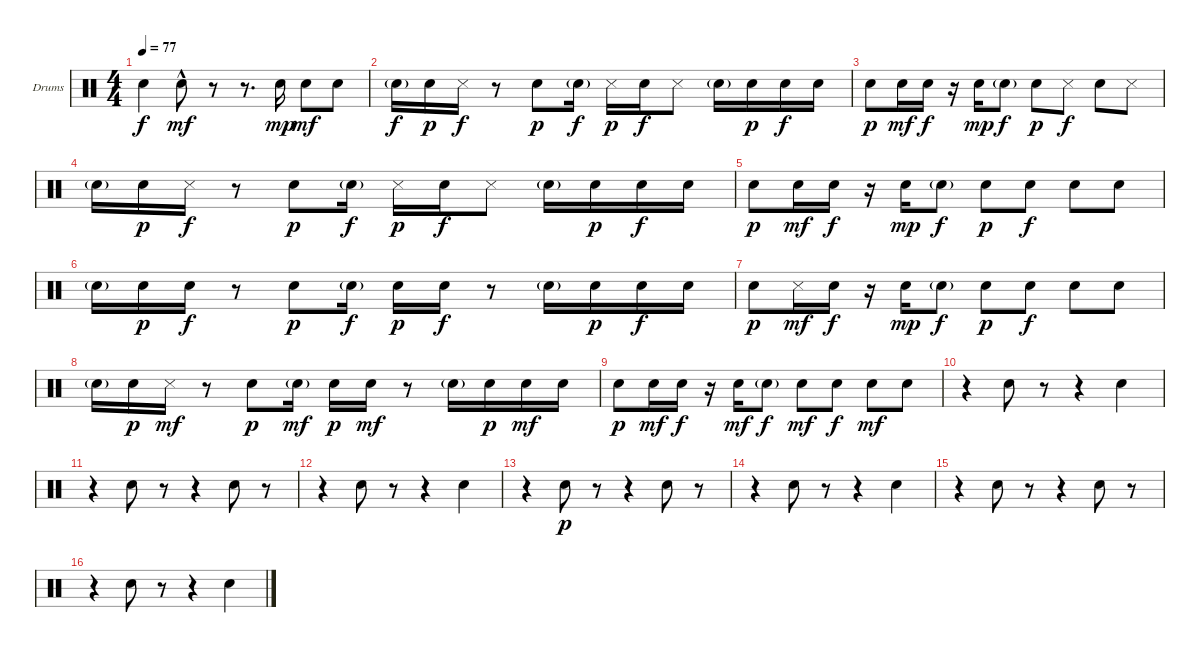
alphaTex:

\bracketExtendMode groupsimilarinstruments
\firstSystemTrackNameOrientation horizontal
\otherSystemsTrackNameOrientation horizontal
\track ("Drumkit Гурьянов" "Drums") {instrument percussion}
\staff {score}
\articulation defaults
\ts (4 4)
\tempo 77
\clef neutral
\scale
0.333333
\ks c "Snare (hit) 2".4{dy f} "Snare (hit) 2"{hac}.8{dy mf}
r.8 r.8{d} "Snare (hit) 2".16{dy mp} "Snare (hit) 2".8{dy mf} "Snare (hit) 2".8 |
\scale
0.333333 "Snare (hit) 2"{g}.16{dy f} "Snare (hit) 2".16{dy p} "Snare (side stick) 3".16{dy f} r.8 "Snare (hit) 2".8{dy p} "Snare (hit) 2"{g}.16{dy f} "Snare (side stick) 3".16{dy p} "Snare (hit) 2".16{dy f} "Snare (side stick) 3".8 "Snare (hit) 2"{g}.16 "Snare (hit) 2".16{dy p} "Snare (hit) 2".16{dy f} "Snare (hit) 2".16 |
\scale
0.333333 "Snare (hit) 2".8{dy p} "Snare (hit) 2".16{dy mf} "Snare (hit) 2".16{dy f} r.16 "Snare (hit) 2".16{dy mp} "Snare (hit) 2"{g}.8{dy f} "Snare (hit) 2".8{dy p} "Snare (side stick) 3".8{dy f} "Snare (hit) 2".8 "Snare (side stick) 3".8 |
\scale
0.333333 "Snare (hit) 2"{g}.16 "Snare (hit) 2".16{dy p} "Snare (side stick) 3".16{dy f} r.8 "Snare (hit) 2".8{dy p} "Snare (hit) 2"{g}.16{dy f} "Snare (side stick) 3".16{dy p} "Snare (hit) 2".16{dy f} "Snare (side stick) 3".8 "Snare (hit) 2"{g}.16 "Snare (hit) 2".16{dy p} "Snare (hit) 2".16{dy f} "Snare (hit) 2".16 |
\scale
0.333333 "Snare (hit) 2".8{dy p} "Snare (hit) 2".16{dy mf} "Snare (hit) 2".16{dy f} r.16 "Snare (hit) 2".16{dy mp} "Snare (hit) 2"{g}.8{dy f} "Snare (hit) 2".8{dy p} "Snare (hit) 2".8{dy f} "Snare (hit) 2".8 "Snare (hit) 2".8 |
\scale
0.333333 "Snare (hit) 2"{g}.16 "Snare (hit) 2".16{dy p} "Snare (hit) 2".16{dy f} r.8 "Snare (hit) 2".8{dy p} "Snare (hit) 2"{g}.16{dy f} "Snare (hit) 2".16{dy p} "Snare (hit) 2".16{dy f} r.8 "Snare (hit) 2"{g}.16 "Snare (hit) 2".16{dy p} "Snare (hit) 2".16{dy f} "Snare (hit) 2".16 |
\scale
0.333333 "Snare (hit) 2".8{dy p} "Snare (side stick) 3".16{dy mf} "Snare (hit) 2".16{dy f} r.16 "Snare (hit) 2".16{dy mp} "Snare (hit) 2"{g}.8{dy f} "Snare (hit) 2".8{dy p} "Snare (hit) 2".8{dy f} "Snare (hit) 2".8 "Snare (hit) 2".8 |
\scale
0.333333 "Snare (hit) 2"{g}.16 "Snare (hit) 2".16{dy p} "Snare (side stick) 3".16{dy mf} r.8 "Snare (hit) 2".8{dy p} "Snare (hit) 2"{g}.16{dy mf} "Snare (hit) 2".16{dy p} "Snare (hit) 2".16{dy mf} r.8 "Snare (hit) 2"{g}.16 "Snare (hit) 2".16{dy p} "Snare (hit) 2".16{dy mf} "Snare (hit) 2".16 |
\scale
0.333333 "Snare (hit) 2".8{dy p} "Snare (hit) 2".16{dy mf} "Snare (hit) 2".16{dy f} r.16 "Snare (hit) 2".16{dy mf} "Snare (hit) 2"{g}.8{dy f} "Snare (hit) 2".8{dy mf} "Snare (hit) 2".8{dy f} "Snare (hit) 2".8{dy mf} "Snare (hit) 2".8 |
\scale
0.333333 r.4 "Snare (hit) 2".8 r.8 r.4 "Snare (hit) 2".4 |
\scale
0.333333 r.4 "Snare (hit) 2".8 r.8 r.4 "Snare (hit) 2".8 r.8 |
\scale
0.333333 r.4 "Snare (hit) 2".8 r.8 r.4 "Snare (hit) 2".4 |
\scale
0.333333 r.4 "Snare (hit) 2".8{dy p} r.8 r.4 "Snare (hit) 2".8 r.8 |
\scale
0.333333 r.4 "Snare (hit) 2".8 r.8 r.4 "Snare (hit) 2".4 |
\scale
0.333333 r.4 "Snare (hit) 2".8 r.8 r.4 "Snare (hit) 2".8 r.8 |
\scale
0.333333 r.4 "Snare (hit) 2".8 r.8 r.4 "Snare (hit) 2".4
